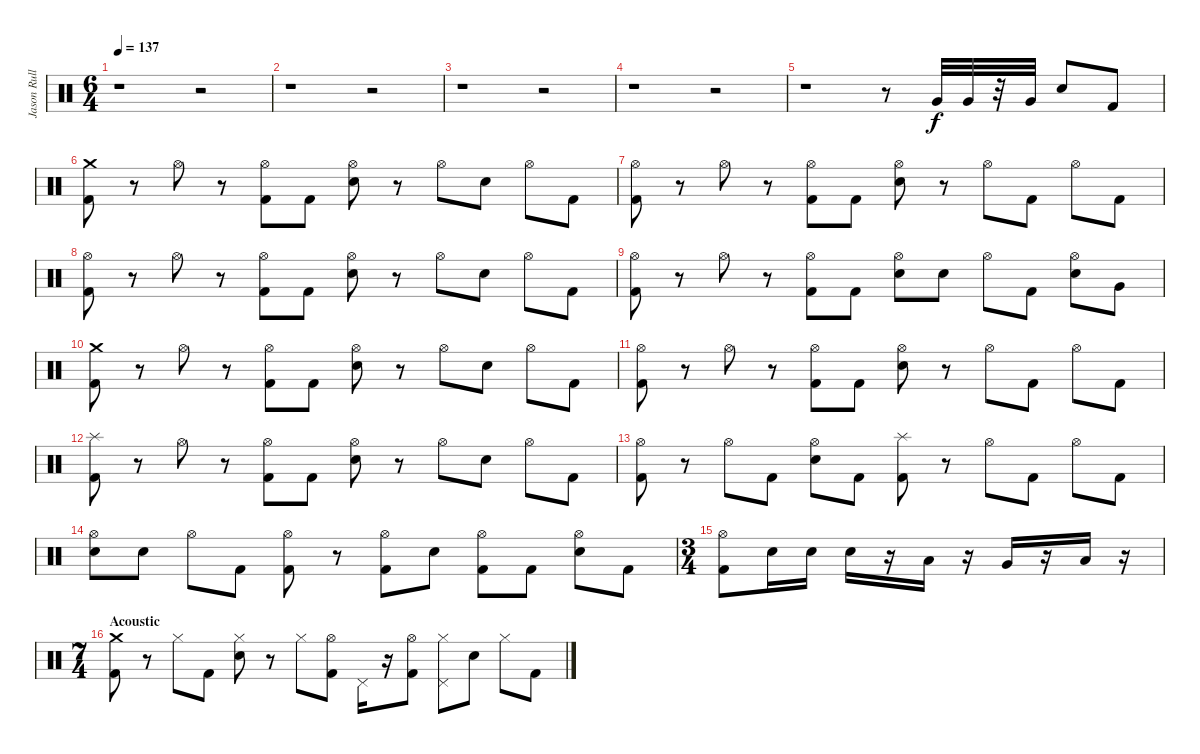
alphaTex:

\track ("Jason Rullo" "Jason Rull") {instrument percussion}
\staff {score}
\articulation defaults
\ts (6 4)
\tempo 137
\clef neutral
\ks c
r.1{dy f} r.2 |
r.1 r.2 |
r.1 r.2 |
r.1 r.2 |
r.1 r.8 "Very Low Tom (hit)".32{volume 16} "Very Low Tom (hit)".32 r.32 "Very Low Tom (hit)".32 "Electric Snare (hit)".8 "Kick (hit) 2".8 |
("Crash medium (hit)" "Kick (hit) 2").8 r.8 "Hi-Hat (open)".8 r.8 ("Hi-Hat (open)" "Kick (hit) 2").8 "Kick (hit) 2".8 ("Hi-Hat (open)" "Electric Snare (hit)").8 r.8 "Hi-Hat (open)".8 "Electric Snare (hit)".8 "Hi-Hat (open)".8 "Kick (hit) 2".8 |
("Hi-Hat (open)" "Kick (hit) 2").8 r.8 "Hi-Hat (open)".8 r.8 ("Hi-Hat (open)" "Kick (hit) 2").8 "Kick (hit) 2".8 ("Hi-Hat (open)" "Electric Snare (hit)").8 r.8 "Hi-Hat (open)".8 "Kick (hit) 2".8 "Hi-Hat (open)".8 "Kick (hit) 2".8 |
("Hi-Hat (open)" "Kick (hit) 2").8 r.8 "Hi-Hat (open)".8 r.8 ("Hi-Hat (open)" "Kick (hit) 2").8 "Kick (hit) 2".8 ("Hi-Hat (open)" "Electric Snare (hit)").8 r.8 "Hi-Hat (open)".8 "Electric Snare (hit)".8 "Hi-Hat (open)".8 "Kick (hit) 2".8 |
("Hi-Hat (open)" "Kick (hit) 2").8 r.8 "Hi-Hat (open)".8 r.8 ("Hi-Hat (open)" "Kick (hit) 2").8 "Kick (hit) 2".8 ("Hi-Hat (open)" "Electric Snare (hit)").8 "Electric Snare (hit)".8 "Hi-Hat (open)".8 "Kick (hit) 2".8 ("Hi-Hat (open)" "Electric Snare (hit)").8 "Very Low Tom (hit)".8 |
("Crash medium (hit)" "Kick (hit) 2").8 r.8 "Hi-Hat (open)".8 r.8 ("Hi-Hat (open)" "Kick (hit) 2").8 "Kick (hit) 2".8 ("Hi-Hat (open)" "Electric Snare (hit)").8 r.8 "Hi-Hat (open)".8 "Electric Snare (hit)".8 "Hi-Hat (open)".8 "Kick (hit) 2".8 |
("Hi-Hat (open)" "Kick (hit) 2").8 r.8 "Hi-Hat (open)".8 r.8 ("Hi-Hat (open)" "Kick (hit) 2").8 "Kick (hit) 2".8 ("Hi-Hat (open)" "Electric Snare (hit)").8 r.8 "Hi-Hat (open)".8 "Kick (hit) 2".8 "Hi-Hat (open)".8 "Kick (hit) 2".8 |
("Splash (hit)" "Kick (hit) 2").8 r.8 "Hi-Hat (open)".8 r.8 ("Hi-Hat (open)" "Kick (hit) 2").8 "Kick (hit) 2".8 ("Hi-Hat (open)" "Electric Snare (hit)").8 r.8 "Hi-Hat (open)".8 "Electric Snare (hit)".8 "Hi-Hat (open)".8 "Kick (hit) 2".8 |
("Hi-Hat (open)" "Kick (hit) 2").8 r.8 "Hi-Hat (open)".8 "Kick (hit) 2".8 ("Electric Snare (hit)" "Hi-Hat (open)").8 "Kick (hit) 2".8 ("Splash (hit)" "Kick (hit) 2").8 r.8 "Hi-Hat (open)".8 "Kick (hit) 2".8 "Hi-Hat (open)".8 "Kick (hit) 2".8 |
("Hi-Hat (open)" "Electric Snare (hit)").8 "Electric Snare (hit)".8 "Hi-Hat (open)".8 "Kick (hit) 2".8 ("Hi-Hat (open)" "Kick (hit) 2").8 r.8 ("Hi-Hat (open)" "Kick (hit) 2").8 "Electric Snare (hit)".8 ("Hi-Hat (open)" "Kick (hit) 2").8 "Kick (hit) 2".8 ("Hi-Hat (open)" "Electric Snare (hit)").8 "Kick (hit) 2".8 |
\ts (3 4)
("Hi-Hat (open)" "Kick (hit) 2").8 "Electric Snare (hit)".16 "Electric Snare (hit)".16 "Electric Snare (hit)".16 r.16 "Low Tom (hit)".16 r.16 "Very Low Tom (hit)".16 r.16 "Low Floor Tom (hit)".16 r.16 |
\ts (7 4)
\section ("" "Acoustic")
("Crash medium (hit)" "Kick (hit) 2").8 r.8 "Hi-Hat (closed)".8 "Kick (hit) 2".8 ("Hi-Hat (closed)" "Electric Snare (hit)").8 r.8 "Hi-Hat (closed)".8 ("Hi-Hat (open)" "Kick (hit) 2").8 "Pedal Hi-Hat (hit)".16 r.16 ("Hi-Hat (open)" "Kick (hit) 2").8 ("Pedal Hi-Hat (hit)" "Hi-Hat (closed)").8 "Electric Snare (hit)".8 "Hi-Hat (closed)".8 "Kick (hit) 2".8
